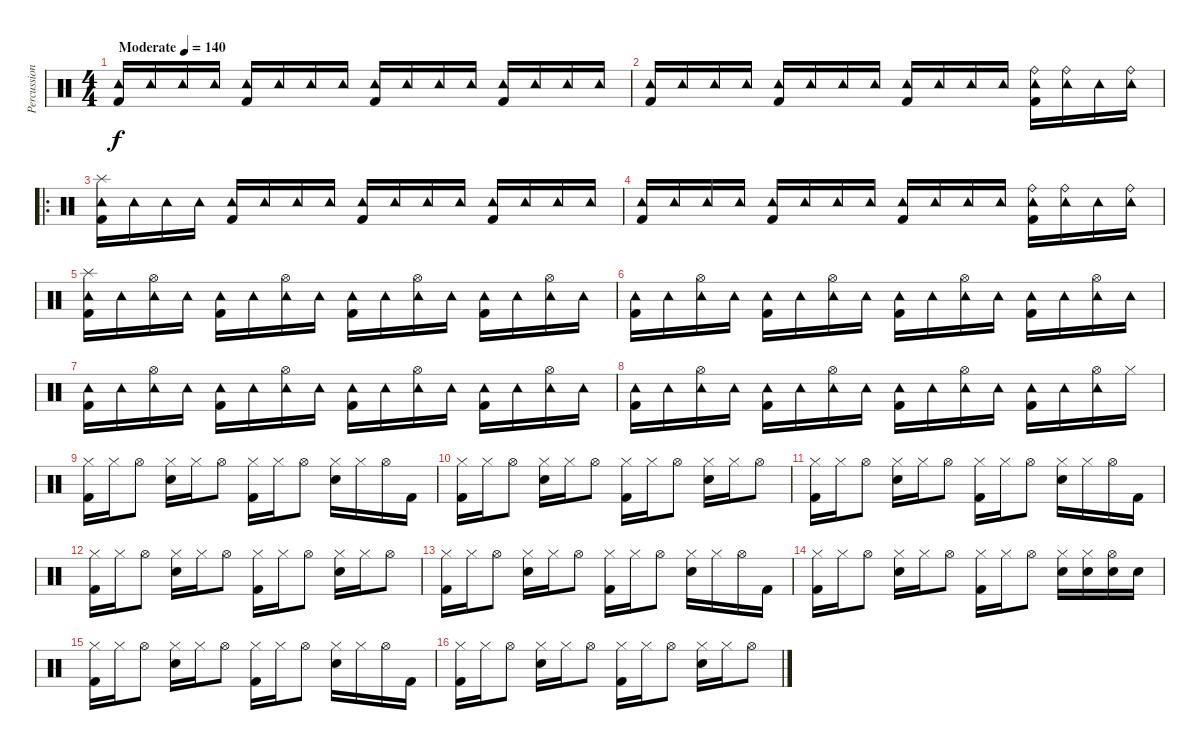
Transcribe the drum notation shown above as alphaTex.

\track ("Percussion" "Percussion") {instrument percussion}
\staff {score}
\articulation defaults
\ts (4 4)
\tempo (140 "Moderate")
\clef neutral
\ks c
("Tambourine (hit)" "Kick (hit) 2").16{dy f} "Tambourine (hit)".16 "Tambourine (hit)".16 "Tambourine (hit)".16 ("Tambourine (hit)" "Kick (hit) 2").16 "Tambourine (hit)".16 "Tambourine (hit)".16 "Tambourine (hit)".16 ("Tambourine (hit)" "Kick (hit) 2").16 "Tambourine (hit)".16 "Tambourine (hit)".16 "Tambourine (hit)".16 ("Tambourine (hit)" "Kick (hit) 2").16 "Tambourine (hit)".16 "Tambourine (hit)".16 "Tambourine (hit)".16 |
("Tambourine (hit)" "Kick (hit) 2").16 "Tambourine (hit)".16 "Tambourine (hit)".16 "Tambourine (hit)".16 ("Tambourine (hit)" "Kick (hit) 2").16 "Tambourine (hit)".16 "Tambourine (hit)".16 "Tambourine (hit)".16 ("Tambourine (hit)" "Kick (hit) 2").16 "Tambourine (hit)".16 "Tambourine (hit)".16 "Tambourine (hit)".16 ("Tambourine (hit)" "Ride (bell)" "Kick (hit) 2").16 ("Tambourine (hit)" "Ride (bell)").16 "Tambourine (hit)".16 ("Tambourine (hit)" "Ride (bell)").16 |
\ro
("Tambourine (hit)" "Splash (hit)" "Kick (hit) 2").16 "Tambourine (hit)".16 "Tambourine (hit)".16 "Tambourine (hit)".16 ("Tambourine (hit)" "Kick (hit) 2").16 "Tambourine (hit)".16 "Tambourine (hit)".16 "Tambourine (hit)".16 ("Tambourine (hit)" "Kick (hit) 2").16 "Tambourine (hit)".16 "Tambourine (hit)".16 "Tambourine (hit)".16 ("Tambourine (hit)" "Kick (hit) 2").16 "Tambourine (hit)".16 "Tambourine (hit)".16 "Tambourine (hit)".16 |
("Tambourine (hit)" "Kick (hit) 2").16 "Tambourine (hit)".16 "Tambourine (hit)".16 "Tambourine (hit)".16 ("Tambourine (hit)" "Kick (hit) 2").16 "Tambourine (hit)".16 "Tambourine (hit)".16 "Tambourine (hit)".16 ("Tambourine (hit)" "Kick (hit) 2").16 "Tambourine (hit)".16 "Tambourine (hit)".16 "Tambourine (hit)".16 ("Tambourine (hit)" "Ride (bell)" "Kick (hit) 2").16 ("Tambourine (hit)" "Ride (bell)").16 "Tambourine (hit)".16 ("Tambourine (hit)" "Ride (bell)").16 |
("Tambourine (hit)" "Splash (hit)" "Kick (hit) 2").16 "Tambourine (hit)".16 ("Tambourine (hit)" "Hi-Hat (open)").16 "Tambourine (hit)".16 ("Tambourine (hit)" "Kick (hit) 2").16 "Tambourine (hit)".16 ("Tambourine (hit)" "Hi-Hat (open)").16 "Tambourine (hit)".16 ("Tambourine (hit)" "Kick (hit) 2").16 "Tambourine (hit)".16 ("Tambourine (hit)" "Hi-Hat (open)").16 "Tambourine (hit)".16 ("Tambourine (hit)" "Kick (hit) 2").16 "Tambourine (hit)".16 ("Tambourine (hit)" "Hi-Hat (open)").16 "Tambourine (hit)".16 |
("Tambourine (hit)" "Kick (hit) 2").16 "Tambourine (hit)".16 ("Tambourine (hit)" "Hi-Hat (open)").16 "Tambourine (hit)".16 ("Tambourine (hit)" "Kick (hit) 2").16 "Tambourine (hit)".16 ("Tambourine (hit)" "Hi-Hat (open)").16 "Tambourine (hit)".16 ("Tambourine (hit)" "Kick (hit) 2").16 "Tambourine (hit)".16 ("Tambourine (hit)" "Hi-Hat (open)").16 "Tambourine (hit)".16 ("Tambourine (hit)" "Kick (hit) 2").16 "Tambourine (hit)".16 ("Tambourine (hit)" "Hi-Hat (open)").16 "Tambourine (hit)".16 |
("Tambourine (hit)" "Kick (hit) 2").16 "Tambourine (hit)".16 ("Tambourine (hit)" "Hi-Hat (open)").16 "Tambourine (hit)".16 ("Tambourine (hit)" "Kick (hit) 2").16 "Tambourine (hit)".16 ("Tambourine (hit)" "Hi-Hat (open)").16 "Tambourine (hit)".16 ("Tambourine (hit)" "Kick (hit) 2").16 "Tambourine (hit)".16 ("Tambourine (hit)" "Hi-Hat (open)").16 "Tambourine (hit)".16 ("Tambourine (hit)" "Kick (hit) 2").16 "Tambourine (hit)".16 ("Tambourine (hit)" "Hi-Hat (open)").16 "Tambourine (hit)".16 |
("Tambourine (hit)" "Kick (hit) 2").16 "Tambourine (hit)".16 ("Tambourine (hit)" "Hi-Hat (open)").16 "Tambourine (hit)".16 ("Tambourine (hit)" "Kick (hit) 2").16 "Tambourine (hit)".16 ("Tambourine (hit)" "Hi-Hat (open)").16 "Tambourine (hit)".16 ("Tambourine (hit)" "Kick (hit) 2").16 "Tambourine (hit)".16 ("Tambourine (hit)" "Hi-Hat (open)").16 "Tambourine (hit)".16 ("Tambourine (hit)" "Kick (hit) 2").16 "Tambourine (hit)".16 ("Tambourine (hit)" "Hi-Hat (open)").16 "Hi-Hat (closed)".16 |
("Hi-Hat (closed)" "Kick (hit) 2").16 "Hi-Hat (closed)".16 "Hi-Hat (open)".8 ("Hi-Hat (closed)" "Snare (hit) 2").16 "Hi-Hat (closed)".16 "Hi-Hat (open)".8 ("Hi-Hat (closed)" "Kick (hit) 2").16 "Hi-Hat (closed)".16 "Hi-Hat (open)".8 ("Hi-Hat (closed)" "Snare (hit) 2").16 "Hi-Hat (closed)".16 "Hi-Hat (open)".16 "Kick (hit) 2".16 |
("Hi-Hat (closed)" "Kick (hit) 2").16 "Hi-Hat (closed)".16 "Hi-Hat (open)".8 ("Hi-Hat (closed)" "Snare (hit) 2").16 "Hi-Hat (closed)".16 "Hi-Hat (open)".8 ("Hi-Hat (closed)" "Kick (hit) 2").16 "Hi-Hat (closed)".16 "Hi-Hat (open)".8 ("Hi-Hat (closed)" "Snare (hit) 2").16 "Hi-Hat (closed)".16 "Hi-Hat (open)".8 |
("Hi-Hat (closed)" "Kick (hit) 2").16 "Hi-Hat (closed)".16 "Hi-Hat (open)".8 ("Hi-Hat (closed)" "Snare (hit) 2").16 "Hi-Hat (closed)".16 "Hi-Hat (open)".8 ("Hi-Hat (closed)" "Kick (hit) 2").16 "Hi-Hat (closed)".16 "Hi-Hat (open)".8 ("Hi-Hat (closed)" "Snare (hit) 2").16 "Hi-Hat (closed)".16 "Hi-Hat (open)".16 "Kick (hit) 2".16 |
("Hi-Hat (closed)" "Kick (hit) 2").16 "Hi-Hat (closed)".16 "Hi-Hat (open)".8 ("Hi-Hat (closed)" "Snare (hit) 2").16 "Hi-Hat (closed)".16 "Hi-Hat (open)".8 ("Hi-Hat (closed)" "Kick (hit) 2").16 "Hi-Hat (closed)".16 "Hi-Hat (open)".8 ("Hi-Hat (closed)" "Snare (hit) 2").16 "Hi-Hat (closed)".16 "Hi-Hat (open)".8 |
("Hi-Hat (closed)" "Kick (hit) 2").16 "Hi-Hat (closed)".16 "Hi-Hat (open)".8 ("Hi-Hat (closed)" "Snare (hit) 2").16 "Hi-Hat (closed)".16 "Hi-Hat (open)".8 ("Hi-Hat (closed)" "Kick (hit) 2").16 "Hi-Hat (closed)".16 "Hi-Hat (open)".8 ("Hi-Hat (closed)" "Snare (hit) 2").16 "Hi-Hat (closed)".16 "Hi-Hat (open)".16 "Kick (hit) 2".16 |
("Hi-Hat (closed)" "Kick (hit) 2").16 "Hi-Hat (closed)".16 "Hi-Hat (open)".8 ("Hi-Hat (closed)" "Snare (hit) 2").16 "Hi-Hat (closed)".16 "Hi-Hat (open)".8 ("Hi-Hat (closed)" "Kick (hit) 2").16 "Hi-Hat (closed)".16 "Hi-Hat (open)".8 ("Hi-Hat (closed)" "Snare (hit) 2").16 ("Hi-Hat (closed)" "Snare (hit) 2").16 ("Hi-Hat (open)" "Snare (hit) 2").16 "Snare (hit) 2".16 |
("Hi-Hat (closed)" "Kick (hit) 2").16 "Hi-Hat (closed)".16 "Hi-Hat (open)".8 ("Hi-Hat (closed)" "Snare (hit) 2").16 "Hi-Hat (closed)".16 "Hi-Hat (open)".8 ("Hi-Hat (closed)" "Kick (hit) 2").16 "Hi-Hat (closed)".16 "Hi-Hat (open)".8 ("Hi-Hat (closed)" "Snare (hit) 2").16 "Hi-Hat (closed)".16 "Hi-Hat (open)".16 "Kick (hit) 2".16 |
("Hi-Hat (closed)" "Kick (hit) 2").16 "Hi-Hat (closed)".16 "Hi-Hat (open)".8 ("Hi-Hat (closed)" "Snare (hit) 2").16 "Hi-Hat (closed)".16 "Hi-Hat (open)".8 ("Hi-Hat (closed)" "Kick (hit) 2").16 "Hi-Hat (closed)".16 "Hi-Hat (open)".8 ("Hi-Hat (closed)" "Snare (hit) 2").16 "Hi-Hat (closed)".16 "Hi-Hat (open)".8
